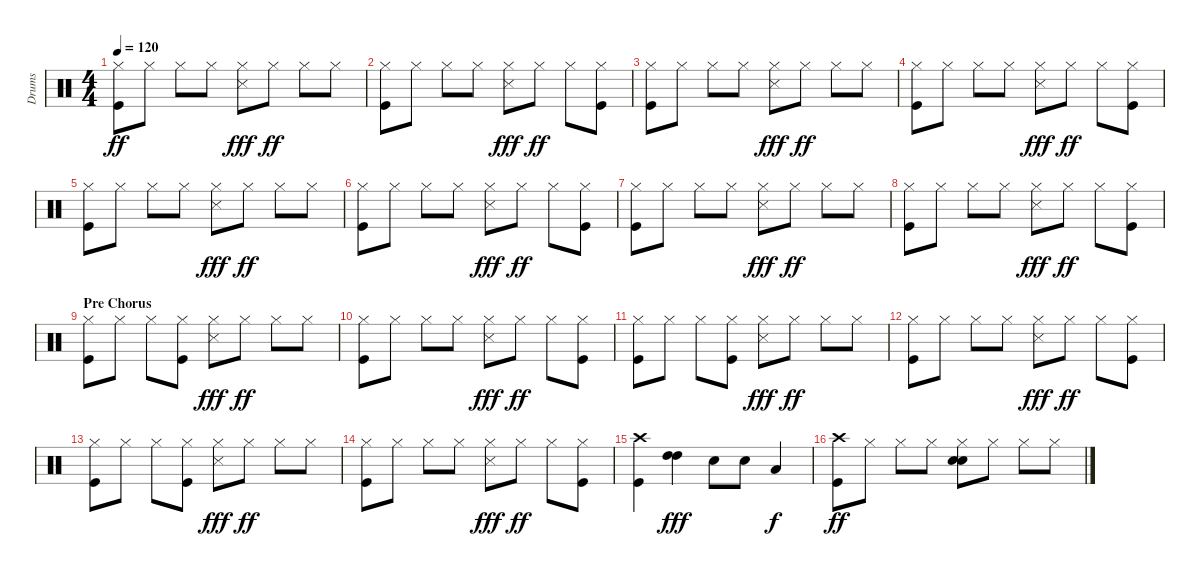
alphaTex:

\track ("Drums" "Drums") {instrument percussion}
\staff {score}
\articulation defaults
\ts (4 4)
\tempo 120
\clef neutral
\ks c
("Hi-Hat (closed)" "Kick (hit)").8{dy ff} "Hi-Hat (closed)".8 "Hi-Hat (closed)".8 "Hi-Hat (closed)".8 ("Hi-Hat (closed)" "Snare (side stick) 3").8{dy fff} "Hi-Hat (closed)".8{dy ff} "Hi-Hat (closed)".8 "Hi-Hat (closed)".8 |
("Hi-Hat (closed)" "Kick (hit)").8 "Hi-Hat (closed)".8 "Hi-Hat (closed)".8 "Hi-Hat (closed)".8 ("Hi-Hat (closed)" "Snare (side stick) 3").8{dy fff} "Hi-Hat (closed)".8{dy ff} "Hi-Hat (closed)".8 ("Hi-Hat (closed)" "Kick (hit)").8 |
("Hi-Hat (closed)" "Kick (hit)").8 "Hi-Hat (closed)".8 "Hi-Hat (closed)".8 "Hi-Hat (closed)".8 ("Hi-Hat (closed)" "Snare (side stick) 3").8{dy fff} "Hi-Hat (closed)".8{dy ff} "Hi-Hat (closed)".8 "Hi-Hat (closed)".8 |
("Hi-Hat (closed)" "Kick (hit)").8 "Hi-Hat (closed)".8 "Hi-Hat (closed)".8 "Hi-Hat (closed)".8 ("Hi-Hat (closed)" "Snare (side stick) 3").8{dy fff} "Hi-Hat (closed)".8{dy ff} "Hi-Hat (closed)".8 ("Hi-Hat (closed)" "Kick (hit)").8 |
("Hi-Hat (closed)" "Kick (hit)").8 "Hi-Hat (closed)".8 "Hi-Hat (closed)".8 "Hi-Hat (closed)".8 ("Hi-Hat (closed)" "Snare (side stick) 3").8{dy fff} "Hi-Hat (closed)".8{dy ff} "Hi-Hat (closed)".8 "Hi-Hat (closed)".8 |
("Hi-Hat (closed)" "Kick (hit)").8 "Hi-Hat (closed)".8 "Hi-Hat (closed)".8 "Hi-Hat (closed)".8 ("Hi-Hat (closed)" "Snare (side stick) 3").8{dy fff} "Hi-Hat (closed)".8{dy ff} "Hi-Hat (closed)".8 ("Hi-Hat (closed)" "Kick (hit)").8 |
("Hi-Hat (closed)" "Kick (hit)").8 "Hi-Hat (closed)".8 "Hi-Hat (closed)".8 "Hi-Hat (closed)".8 ("Hi-Hat (closed)" "Snare (side stick) 3").8{dy fff} "Hi-Hat (closed)".8{dy ff} "Hi-Hat (closed)".8 "Hi-Hat (closed)".8 |
("Hi-Hat (closed)" "Kick (hit)").8 "Hi-Hat (closed)".8 "Hi-Hat (closed)".8 "Hi-Hat (closed)".8 ("Hi-Hat (closed)" "Snare (side stick) 3").8{dy fff} "Hi-Hat (closed)".8{dy ff} "Hi-Hat (closed)".8 ("Hi-Hat (closed)" "Kick (hit)").8 |
\section ("" "Pre Chorus")
("Hi-Hat (closed)" "Kick (hit)").8 "Hi-Hat (closed)".8 "Hi-Hat (closed)".8 ("Kick (hit)" "Hi-Hat (closed)").8 ("Hi-Hat (closed)" "Snare (side stick) 3").8{dy fff} "Hi-Hat (closed)".8{dy ff} "Hi-Hat (closed)".8 "Hi-Hat (closed)".8 |
("Hi-Hat (closed)" "Kick (hit)").8 "Hi-Hat (closed)".8 "Hi-Hat (closed)".8 "Hi-Hat (closed)".8 ("Hi-Hat (closed)" "Snare (side stick) 3").8{dy fff} "Hi-Hat (closed)".8{dy ff} "Hi-Hat (closed)".8 ("Hi-Hat (closed)" "Kick (hit)").8 |
("Hi-Hat (closed)" "Kick (hit)").8 "Hi-Hat (closed)".8 "Hi-Hat (closed)".8 ("Kick (hit)" "Hi-Hat (closed)").8 ("Hi-Hat (closed)" "Snare (side stick) 3").8{dy fff} "Hi-Hat (closed)".8{dy ff} "Hi-Hat (closed)".8 "Hi-Hat (closed)".8 |
("Hi-Hat (closed)" "Kick (hit)").8 "Hi-Hat (closed)".8 "Hi-Hat (closed)".8 "Hi-Hat (closed)".8 ("Hi-Hat (closed)" "Snare (side stick) 3").8{dy fff} "Hi-Hat (closed)".8{dy ff} "Hi-Hat (closed)".8 ("Hi-Hat (closed)" "Kick (hit)").8 |
("Hi-Hat (closed)" "Kick (hit)").8 "Hi-Hat (closed)".8 "Hi-Hat (closed)".8 ("Kick (hit)" "Hi-Hat (closed)").8 ("Hi-Hat (closed)" "Snare (side stick) 3").8{dy fff} "Hi-Hat (closed)".8{dy ff} "Hi-Hat (closed)".8 "Hi-Hat (closed)".8 |
("Hi-Hat (closed)" "Kick (hit)").8 "Hi-Hat (closed)".8 "Hi-Hat (closed)".8 "Hi-Hat (closed)".8 ("Hi-Hat (closed)" "Snare (side stick) 3").8{dy fff} "Hi-Hat (closed)".8{dy ff} "Hi-Hat (closed)".8 ("Hi-Hat (closed)" "Kick (hit)").8 |
("Crash high (hit)" "Kick (hit)").4 ("High Tom (hit)" "High Tom (hit)").4{dy fff} "Electric Snare (hit)".8 "Electric Snare (hit)".8 "Low Tom (hit)".4{dy f} |
("Crash high (hit)" "Kick (hit)").8{dy ff} "Hi-Hat (closed)".8 "Hi-Hat (closed)".8 "Hi-Hat (closed)".8 ("Electric Snare (hit)" "Hi-Hat (closed)" "Snare (hit) 2").8 "Hi-Hat (closed)".8 "Hi-Hat (closed)".8 "Hi-Hat (closed)".8
